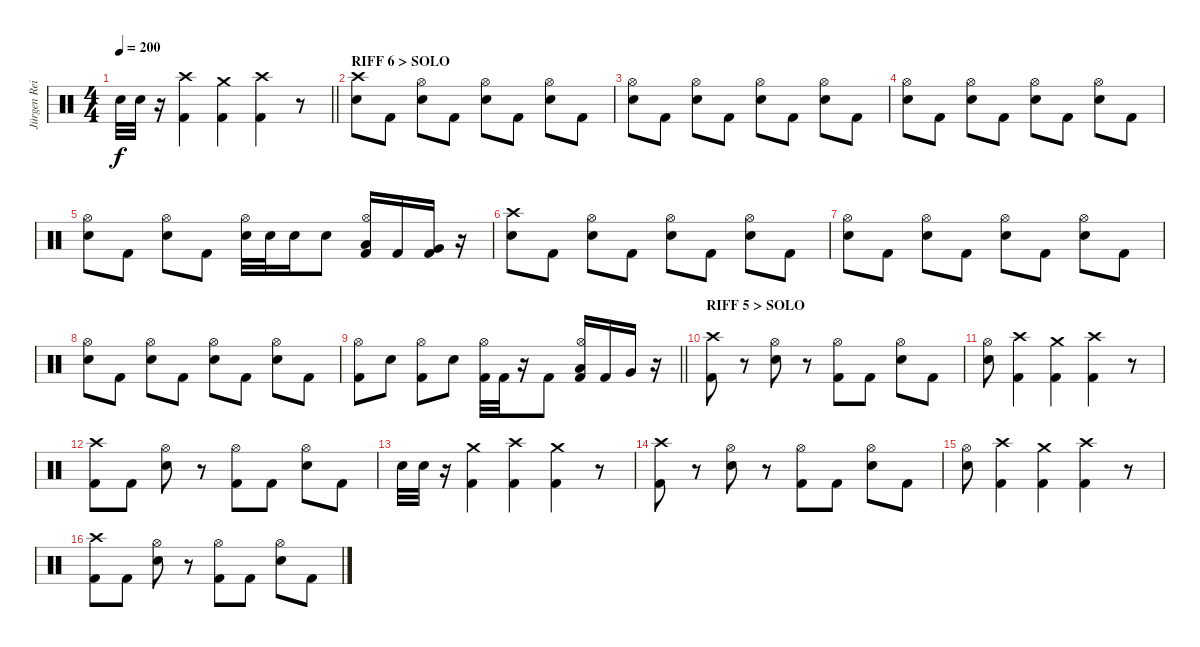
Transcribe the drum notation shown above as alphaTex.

\track ("Jürgen Reil" "Jürgen Rei") {instrument percussion}
\staff {score}
\articulation defaults
\ts (4 4)
\tempo 200
\clef neutral
\barLineRight lightlight
\ks c "Electric Snare (hit)".32{dy f} "Electric Snare (hit)".32
r.16 ("Crash high (hit)" "Kick (hit) 2").4 ("Crash medium (hit)" "Kick (hit) 2").4 ("Crash high (hit)" "Kick (hit) 2").4 r.8 |
\section ("" "RIFF 6 > SOLO")
("Crash high (hit)" "Electric Snare (hit)").8 "Kick (hit) 2".8 ("Hi-Hat (open)" "Electric Snare (hit)").8 "Kick (hit) 2".8 ("Hi-Hat (open)" "Electric Snare (hit)").8 "Kick (hit) 2".8 ("Hi-Hat (open)" "Electric Snare (hit)").8 "Kick (hit) 2".8 |
("Hi-Hat (open)" "Electric Snare (hit)").8 "Kick (hit) 2".8 ("Hi-Hat (open)" "Electric Snare (hit)").8 "Kick (hit) 2".8 ("Hi-Hat (open)" "Electric Snare (hit)").8 "Kick (hit) 2".8 ("Hi-Hat (open)" "Electric Snare (hit)").8 "Kick (hit) 2".8 |
("Hi-Hat (open)" "Electric Snare (hit)").8 "Kick (hit) 2".8 ("Hi-Hat (open)" "Electric Snare (hit)").8 "Kick (hit) 2".8 ("Hi-Hat (open)" "Electric Snare (hit)").8 "Kick (hit) 2".8 ("Hi-Hat (open)" "Electric Snare (hit)").8 "Kick (hit) 2".8 |
("Hi-Hat (open)" "Electric Snare (hit)").8 "Kick (hit) 2".8 ("Hi-Hat (open)" "Electric Snare (hit)").8 "Kick (hit) 2".8 ("Hi-Hat (open)" "Electric Snare (hit)").32 "Electric Snare (hit)".32 "Electric Snare (hit)".16 "Electric Snare (hit)".8 ("Hi-Hat (open)" "Low Tom (hit)" "Kick (hit) 2").16 "Kick (hit) 2".16 ("Very Low Tom (hit)" "Kick (hit) 2").16 r.16 |
("Crash high (hit)" "Electric Snare (hit)").8 "Kick (hit) 2".8 ("Hi-Hat (open)" "Electric Snare (hit)").8 "Kick (hit) 2".8 ("Hi-Hat (open)" "Electric Snare (hit)").8 "Kick (hit) 2".8 ("Hi-Hat (open)" "Electric Snare (hit)").8 "Kick (hit) 2".8 |
("Hi-Hat (open)" "Electric Snare (hit)").8 "Kick (hit) 2".8 ("Hi-Hat (open)" "Electric Snare (hit)").8 "Kick (hit) 2".8 ("Hi-Hat (open)" "Electric Snare (hit)").8 "Kick (hit) 2".8 ("Hi-Hat (open)" "Electric Snare (hit)").8 "Kick (hit) 2".8 |
("Hi-Hat (open)" "Electric Snare (hit)").8 "Kick (hit) 2".8 ("Hi-Hat (open)" "Electric Snare (hit)").8 "Kick (hit) 2".8 ("Hi-Hat (open)" "Electric Snare (hit)").8 "Kick (hit) 2".8 ("Hi-Hat (open)" "Electric Snare (hit)").8 "Kick (hit) 2".8 |
\barLineRight lightlight
("Hi-Hat (open)" "Kick (hit) 2").8 "Electric Snare (hit)".8 ("Hi-Hat (open)" "Kick (hit) 2").8 "Electric Snare (hit)".8 ("Hi-Hat (open)" "Kick (hit) 2").32 "Kick (hit) 2".32 r.16 "Kick (hit) 2".8 ("Hi-Hat (open)" "Low Tom (hit)" "Kick (hit) 2").16 "Kick (hit) 2".16 "Very Low Tom (hit)".16 r.16 |
\section ("" "RIFF 5 > SOLO")
("Crash high (hit)" "Kick (hit) 2").8 r.8 ("Hi-Hat (open)" "Electric Snare (hit)").8 r.8 ("Hi-Hat (open)" "Kick (hit) 2").8 "Kick (hit) 2".8 ("Hi-Hat (open)" "Electric Snare (hit)").8 "Kick (hit) 2".8 |
("Hi-Hat (open)" "Electric Snare (hit)").8 ("Crash high (hit)" "Kick (hit) 2").4 ("Crash medium (hit)" "Kick (hit) 2").4 ("Crash high (hit)" "Kick (hit) 2").4 r.8 |
("Crash high (hit)" "Kick (hit) 2").8 "Kick (hit) 2".8 ("Hi-Hat (open)" "Electric Snare (hit)").8 r.8 ("Hi-Hat (open)" "Kick (hit) 2").8 "Kick (hit) 2".8 ("Hi-Hat (open)" "Electric Snare (hit)").8 "Kick (hit) 2".8 |
"Electric Snare (hit)".32 "Electric Snare (hit)".32 r.16 ("Crash medium (hit)" "Kick (hit) 2").4 ("Crash high (hit)" "Kick (hit) 2").4 ("Crash medium (hit)" "Kick (hit) 2").4 r.8 |
("Crash high (hit)" "Kick (hit) 2").8 r.8 ("Hi-Hat (open)" "Electric Snare (hit)").8 r.8 ("Hi-Hat (open)" "Kick (hit) 2").8 "Kick (hit) 2".8 ("Hi-Hat (open)" "Electric Snare (hit)").8 "Kick (hit) 2".8 |
("Hi-Hat (open)" "Electric Snare (hit)").8 ("Crash high (hit)" "Kick (hit) 2").4 ("Crash medium (hit)" "Kick (hit) 2").4 ("Crash high (hit)" "Kick (hit) 2").4 r.8 |
("Crash high (hit)" "Kick (hit) 2").8 "Kick (hit) 2".8 ("Hi-Hat (open)" "Electric Snare (hit)").8 r.8 ("Hi-Hat (open)" "Kick (hit) 2").8 "Kick (hit) 2".8 ("Hi-Hat (open)" "Electric Snare (hit)").8 "Kick (hit) 2".8
